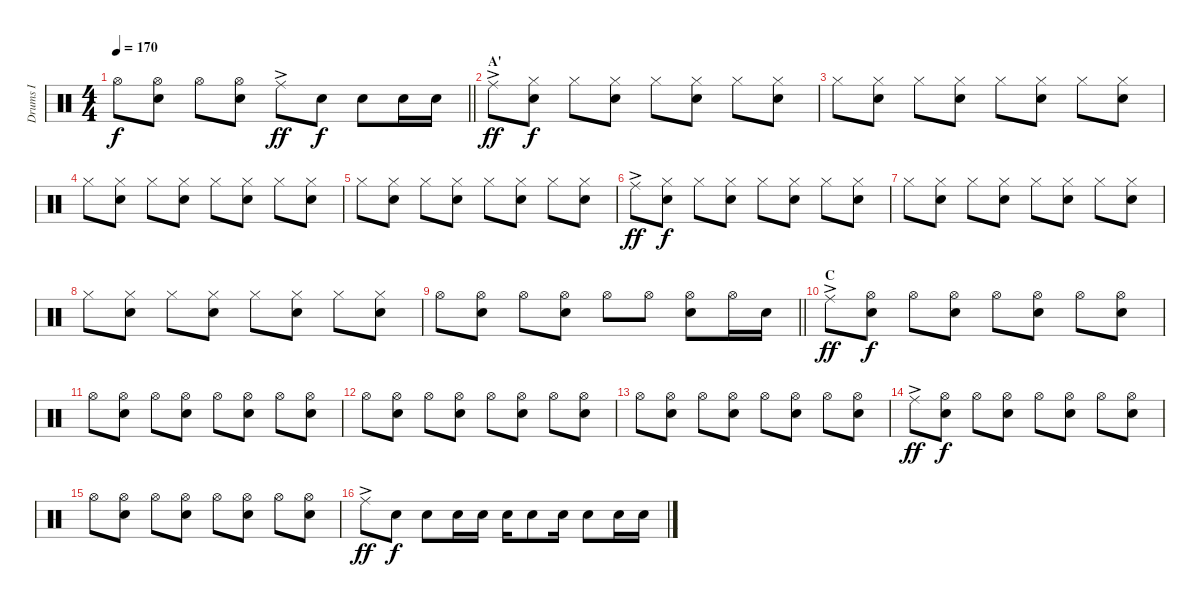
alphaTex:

\track ("Drums I" "Drums I") {instrument percussion}
\staff {score}
\articulation defaults
\ts (4 4)
\tempo 170
\clef neutral
\barLineRight lightlight
\ks c "Hi-Hat (open)".8{dy f}
("Hi-Hat (open)" "Snare (hit) 2").8 "Hi-Hat (open)".8 ("Hi-Hat (open)" "Snare (hit) 2").8 "Ride (middle)"{ac}.8{dy ff} "Snare (hit) 2".8{dy f} "Snare (hit) 2".8 "Snare (hit) 2".16 "Snare (hit) 2".16 |
\section ("" "A'")
"Ride (middle)"{ac}.8{dy ff} ("Hi-Hat (closed)" "Snare (hit) 2").8{dy f} "Hi-Hat (closed)".8 ("Hi-Hat (closed)" "Snare (hit) 2").8 "Hi-Hat (closed)".8 ("Hi-Hat (closed)" "Snare (hit) 2").8 "Hi-Hat (closed)".8 ("Hi-Hat (closed)" "Snare (hit) 2").8 |
"Hi-Hat (closed)".8 ("Hi-Hat (closed)" "Snare (hit) 2").8 "Hi-Hat (closed)".8 ("Hi-Hat (closed)" "Snare (hit) 2").8 "Hi-Hat (closed)".8 ("Hi-Hat (closed)" "Snare (hit) 2").8 "Hi-Hat (closed)".8 ("Hi-Hat (closed)" "Snare (hit) 2").8 |
"Hi-Hat (closed)".8 ("Hi-Hat (closed)" "Snare (hit) 2").8 "Hi-Hat (closed)".8 ("Hi-Hat (closed)" "Snare (hit) 2").8 "Hi-Hat (closed)".8 ("Hi-Hat (closed)" "Snare (hit) 2").8 "Hi-Hat (closed)".8 ("Hi-Hat (closed)" "Snare (hit) 2").8 |
"Hi-Hat (closed)".8 ("Hi-Hat (closed)" "Snare (hit) 2").8 "Hi-Hat (closed)".8 ("Hi-Hat (closed)" "Snare (hit) 2").8 "Hi-Hat (closed)".8 ("Hi-Hat (closed)" "Snare (hit) 2").8 "Hi-Hat (closed)".8 ("Hi-Hat (closed)" "Snare (hit) 2").8 |
"Ride (middle)"{ac}.8{dy ff} ("Hi-Hat (closed)" "Snare (hit) 2").8{dy f} "Hi-Hat (closed)".8 ("Hi-Hat (closed)" "Snare (hit) 2").8 "Hi-Hat (closed)".8 ("Hi-Hat (closed)" "Snare (hit) 2").8 "Hi-Hat (closed)".8 ("Hi-Hat (closed)" "Snare (hit) 2").8 |
"Hi-Hat (closed)".8 ("Hi-Hat (closed)" "Snare (hit) 2").8 "Hi-Hat (closed)".8 ("Hi-Hat (closed)" "Snare (hit) 2").8 "Hi-Hat (closed)".8 ("Hi-Hat (closed)" "Snare (hit) 2").8 "Hi-Hat (closed)".8 ("Hi-Hat (closed)" "Snare (hit) 2").8 |
"Hi-Hat (closed)".8 ("Hi-Hat (closed)" "Snare (hit) 2").8 "Hi-Hat (closed)".8 ("Hi-Hat (closed)" "Snare (hit) 2").8 "Hi-Hat (closed)".8 ("Hi-Hat (closed)" "Snare (hit) 2").8 "Hi-Hat (closed)".8 ("Hi-Hat (closed)" "Snare (hit) 2").8 |
\barLineRight lightlight "Hi-Hat (open)".8
("Hi-Hat (open)" "Snare (hit) 2").8 "Hi-Hat (open)".8 ("Hi-Hat (open)" "Snare (hit) 2").8 "Hi-Hat (open)".8 "Hi-Hat (open)".8 ("Hi-Hat (open)" "Snare (hit) 2").8 "Hi-Hat (open)".16 "Snare (hit) 2".16 |
\section ("" "C")
"Ride (middle)"{ac}.8{dy ff} ("Hi-Hat (open)" "Snare (hit) 2").8{dy f} "Hi-Hat (open)".8 ("Hi-Hat (open)" "Snare (hit) 2").8 "Hi-Hat (open)".8 ("Hi-Hat (open)" "Snare (hit) 2").8 "Hi-Hat (open)".8 ("Hi-Hat (open)" "Snare (hit) 2").8 |
"Hi-Hat (open)".8 ("Hi-Hat (open)" "Snare (hit) 2").8 "Hi-Hat (open)".8 ("Hi-Hat (open)" "Snare (hit) 2").8 "Hi-Hat (open)".8 ("Hi-Hat (open)" "Snare (hit) 2").8 "Hi-Hat (open)".8 ("Hi-Hat (open)" "Snare (hit) 2").8 |
"Hi-Hat (open)".8 ("Hi-Hat (open)" "Snare (hit) 2").8 "Hi-Hat (open)".8 ("Hi-Hat (open)" "Snare (hit) 2").8 "Hi-Hat (open)".8 ("Hi-Hat (open)" "Snare (hit) 2").8 "Hi-Hat (open)".8 ("Hi-Hat (open)" "Snare (hit) 2").8 |
"Hi-Hat (open)".8 ("Hi-Hat (open)" "Snare (hit) 2").8 "Hi-Hat (open)".8 ("Hi-Hat (open)" "Snare (hit) 2").8 "Hi-Hat (open)".8 ("Hi-Hat (open)" "Snare (hit) 2").8 "Hi-Hat (open)".8 ("Hi-Hat (open)" "Snare (hit) 2").8 |
"Ride (middle)"{ac}.8{dy ff} ("Hi-Hat (open)" "Snare (hit) 2").8{dy f} "Hi-Hat (open)".8 ("Hi-Hat (open)" "Snare (hit) 2").8 "Hi-Hat (open)".8 ("Hi-Hat (open)" "Snare (hit) 2").8 "Hi-Hat (open)".8 ("Hi-Hat (open)" "Snare (hit) 2").8 |
"Hi-Hat (open)".8 ("Hi-Hat (open)" "Snare (hit) 2").8 "Hi-Hat (open)".8 ("Hi-Hat (open)" "Snare (hit) 2").8 "Hi-Hat (open)".8 ("Hi-Hat (open)" "Snare (hit) 2").8 "Hi-Hat (open)".8 ("Hi-Hat (open)" "Snare (hit) 2").8 |
"Ride (middle)"{ac}.8{dy ff} "Snare (hit) 2".8{dy f} "Snare (hit) 2".8 "Snare (hit) 2".16 "Snare (hit) 2".16 "Snare (hit) 2".16 "Snare (hit) 2".8 "Snare (hit) 2".16 "Snare (hit) 2".8 "Snare (hit) 2".16 "Snare (hit) 2".16
